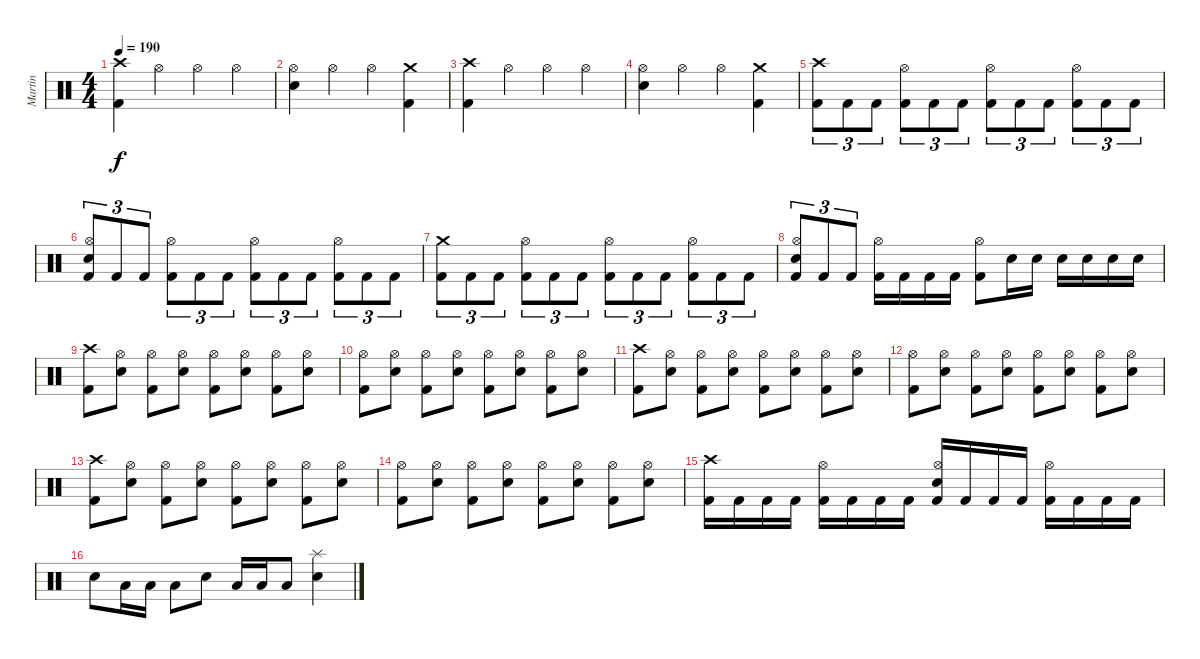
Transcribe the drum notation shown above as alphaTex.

\track ("Martin" "Martin") {instrument percussion}
\staff {score}
\articulation defaults
\ts (4 4)
\tempo 190
\clef neutral
\ks c
("Crash high (hit)" "Kick (hit) 2").4{dy f} "Hi-Hat (open)".4 "Hi-Hat (open)".4 "Hi-Hat (open)".4 |
("Hi-Hat (open)" "Snare (hit) 2").4 "Hi-Hat (open)".4 "Hi-Hat (open)".4 ("Crash medium (hit)" "Kick (hit) 2").4 |
("Crash high (hit)" "Kick (hit) 2").4 "Hi-Hat (open)".4 "Hi-Hat (open)".4 "Hi-Hat (open)".4 |
("Hi-Hat (open)" "Snare (hit) 2").4 "Hi-Hat (open)".4 "Hi-Hat (open)".4 ("Crash medium (hit)" "Kick (hit) 2").4 |
("Crash high (hit)" "Kick (hit) 2").8{tu (3 2)} "Kick (hit) 2".8{tu (3 2)} "Kick (hit) 2".8{tu (3 2)} ("Hi-Hat (open)" "Kick (hit) 2").8{tu (3 2)} "Kick (hit) 2".8{tu (3 2)} "Kick (hit) 2".8{tu (3 2)} ("Hi-Hat (open)" "Kick (hit) 2").8{tu (3 2)} "Kick (hit) 2".8{tu (3 2)} "Kick (hit) 2".8{tu (3 2)} ("Hi-Hat (open)" "Kick (hit) 2").8{tu (3 2)} "Kick (hit) 2".8{tu (3 2)} "Kick (hit) 2".8{tu (3 2)} |
("Hi-Hat (open)" "Snare (hit) 2" "Kick (hit) 2").8{tu (3 2)} "Kick (hit) 2".8{tu (3 2)} "Kick (hit) 2".8{tu (3 2)} ("Hi-Hat (open)" "Kick (hit) 2").8{tu (3 2)} "Kick (hit) 2".8{tu (3 2)} "Kick (hit) 2".8{tu (3 2)} ("Hi-Hat (open)" "Kick (hit) 2").8{tu (3 2)} "Kick (hit) 2".8{tu (3 2)} "Kick (hit) 2".8{tu (3 2)} ("Hi-Hat (open)" "Kick (hit) 2").8{tu (3 2)} "Kick (hit) 2".8{tu (3 2)} "Kick (hit) 2".8{tu (3 2)} |
("Crash medium (hit)" "Kick (hit) 2").8{tu (3 2)} "Kick (hit) 2".8{tu (3 2)} "Kick (hit) 2".8{tu (3 2)} ("Hi-Hat (open)" "Kick (hit) 2").8{tu (3 2)} "Kick (hit) 2".8{tu (3 2)} "Kick (hit) 2".8{tu (3 2)} ("Hi-Hat (open)" "Kick (hit) 2").8{tu (3 2)} "Kick (hit) 2".8{tu (3 2)} "Kick (hit) 2".8{tu (3 2)} ("Hi-Hat (open)" "Kick (hit) 2").8{tu (3 2)} "Kick (hit) 2".8{tu (3 2)} "Kick (hit) 2".8{tu (3 2)} |
("Hi-Hat (open)" "Snare (hit) 2" "Kick (hit) 2").8{tu (3 2)} "Kick (hit) 2".8{tu (3 2)} "Kick (hit) 2".8{tu (3 2)} ("Hi-Hat (open)" "Kick (hit) 2").16 "Kick (hit) 2".16 "Kick (hit) 2".16 "Kick (hit) 2".16 ("Hi-Hat (open)" "Kick (hit) 2").8 "Snare (hit) 2".16 "Snare (hit) 2".16 "Snare (hit) 2".16 "Snare (hit) 2".16 "Snare (hit) 2".16 "Snare (hit) 2".16 |
("Crash high (hit)" "Kick (hit) 2").8 ("Hi-Hat (open)" "Snare (hit) 2").8 ("Hi-Hat (open)" "Kick (hit) 2").8 ("Hi-Hat (open)" "Snare (hit) 2").8 ("Hi-Hat (open)" "Kick (hit) 2").8 ("Hi-Hat (open)" "Snare (hit) 2").8 ("Hi-Hat (open)" "Kick (hit) 2").8 ("Hi-Hat (open)" "Snare (hit) 2").8 |
("Hi-Hat (open)" "Kick (hit) 2").8 ("Hi-Hat (open)" "Snare (hit) 2").8 ("Hi-Hat (open)" "Kick (hit) 2").8 ("Hi-Hat (open)" "Snare (hit) 2").8 ("Hi-Hat (open)" "Kick (hit) 2").8 ("Hi-Hat (open)" "Snare (hit) 2").8 ("Hi-Hat (open)" "Kick (hit) 2").8 ("Hi-Hat (open)" "Snare (hit) 2").8 |
("Crash high (hit)" "Kick (hit) 2").8 ("Hi-Hat (open)" "Snare (hit) 2").8 ("Hi-Hat (open)" "Kick (hit) 2").8 ("Hi-Hat (open)" "Snare (hit) 2").8 ("Hi-Hat (open)" "Kick (hit) 2").8 ("Hi-Hat (open)" "Snare (hit) 2").8 ("Hi-Hat (open)" "Kick (hit) 2").8 ("Hi-Hat (open)" "Snare (hit) 2").8 |
("Hi-Hat (open)" "Kick (hit) 2").8 ("Hi-Hat (open)" "Snare (hit) 2").8 ("Hi-Hat (open)" "Kick (hit) 2").8 ("Hi-Hat (open)" "Snare (hit) 2").8 ("Hi-Hat (open)" "Kick (hit) 2").8 ("Hi-Hat (open)" "Snare (hit) 2").8 ("Hi-Hat (open)" "Kick (hit) 2").8 ("Hi-Hat (open)" "Snare (hit) 2").8 |
("Crash high (hit)" "Kick (hit) 2").8 ("Hi-Hat (open)" "Snare (hit) 2").8 ("Hi-Hat (open)" "Kick (hit) 2").8 ("Hi-Hat (open)" "Snare (hit) 2").8 ("Hi-Hat (open)" "Kick (hit) 2").8 ("Hi-Hat (open)" "Snare (hit) 2").8 ("Hi-Hat (open)" "Kick (hit) 2").8 ("Hi-Hat (open)" "Snare (hit) 2").8 |
("Hi-Hat (open)" "Kick (hit) 2").8 ("Hi-Hat (open)" "Snare (hit) 2").8 ("Hi-Hat (open)" "Kick (hit) 2").8 ("Hi-Hat (open)" "Snare (hit) 2").8 ("Hi-Hat (open)" "Kick (hit) 2").8 ("Hi-Hat (open)" "Snare (hit) 2").8 ("Hi-Hat (open)" "Kick (hit) 2").8 ("Hi-Hat (open)" "Snare (hit) 2").8 |
("Crash high (hit)" "Kick (hit) 2").16 "Kick (hit) 2".16 "Kick (hit) 2".16 "Kick (hit) 2".16 ("Hi-Hat (open)" "Kick (hit) 2").16 "Kick (hit) 2".16 "Kick (hit) 2".16 "Kick (hit) 2".16 ("Hi-Hat (open)" "Snare (hit) 2" "Kick (hit) 2").16 "Kick (hit) 2".16 "Kick (hit) 2".16 "Kick (hit) 2".16 ("Hi-Hat (open)" "Kick (hit) 2").16 "Kick (hit) 2".16 "Kick (hit) 2".16 "Kick (hit) 2".16 |
"Snare (hit) 2".8 "Low Tom (hit)".16 "Low Tom (hit)".16 "Low Tom (hit)".8 "Snare (hit) 2".8 "Low Tom (hit)".16 "Low Tom (hit)".16 "Low Tom (hit)".8 ("Splash (hit)" "Snare (hit) 2").4
